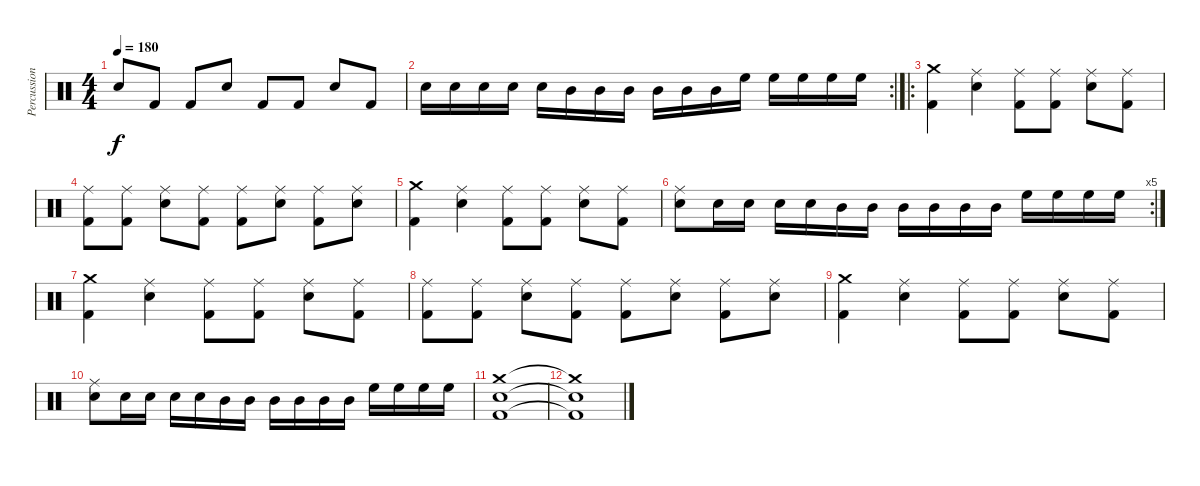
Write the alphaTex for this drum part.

\track ("Percussions" "Percussion") {instrument percussion}
\staff {score}
\articulation defaults
\ts (4 4)
\tempo 180
\clef neutral
\ks c "Electric Snare (hit)".8{dy f} "Kick (hit) 2".8 "Kick (hit) 2".8 "Electric Snare (hit)".8 "Kick (hit) 2".8 "Kick (hit) 2".8 "Electric Snare (hit)".8 "Kick (hit) 2".8
|
\rc 2 "Electric Snare (hit)".16 "Electric Snare (hit)".16 "Electric Snare (hit)".16 "Electric Snare (hit)".16 "Electric Snare (hit)".16 "Mid Tom (hit)".16 "Mid Tom (hit)".16 "Mid Tom (hit)".16 "Mid Tom (hit)".16 "Mid Tom (hit)".16 "Mid Tom (hit)".16 "High Floor Tom (hit)".16 "High Floor Tom (hit)".16 "High Floor Tom (hit)".16 "High Floor Tom (hit)".16 "High Floor Tom (hit)".16
|
\ro
("Crash medium (hit)" "Kick (hit) 2").4 ("Ride (middle)" "Electric Snare (hit)").4 ("Ride (middle)" "Kick (hit) 2").8 ("Ride (middle)" "Kick (hit) 2").8 ("Ride (middle)" "Electric Snare (hit)").8 ("Ride (middle)" "Kick (hit) 2").8 |
("Ride (middle)" "Kick (hit) 2").8 ("Ride (middle)" "Kick (hit) 2").8 ("Ride (middle)" "Electric Snare (hit)").8 ("Ride (middle)" "Kick (hit) 2").8 ("Ride (middle)" "Kick (hit) 2").8 ("Ride (middle)" "Electric Snare (hit)").8 ("Ride (middle)" "Kick (hit) 2").8 ("Ride (middle)" "Electric Snare (hit)").8 |
("Crash medium (hit)" "Kick (hit) 2").4 ("Ride (middle)" "Electric Snare (hit)").4 ("Ride (middle)" "Kick (hit) 2").8 ("Ride (middle)" "Kick (hit) 2").8 ("Ride (middle)" "Electric Snare (hit)").8 ("Ride (middle)" "Kick (hit) 2").8 |
\rc 5
("Ride (middle)" "Electric Snare (hit)").8 "Electric Snare (hit)".16 "Electric Snare (hit)".16 "Electric Snare (hit)".16 "Electric Snare (hit)".16 "Mid Tom (hit)".16 "Mid Tom (hit)".16 "Mid Tom (hit)".16 "Mid Tom (hit)".16 "Mid Tom (hit)".16 "Mid Tom (hit)".16 "High Floor Tom (hit)".16 "High Floor Tom (hit)".16 "High Floor Tom (hit)".16 "High Floor Tom (hit)".16 |
("Crash medium (hit)" "Kick (hit) 2").4 ("Ride (middle)" "Electric Snare (hit)").4 ("Ride (middle)" "Kick (hit) 2").8 ("Ride (middle)" "Kick (hit) 2").8 ("Ride (middle)" "Electric Snare (hit)").8 ("Ride (middle)" "Kick (hit) 2").8 |
("Ride (middle)" "Kick (hit) 2").8 ("Ride (middle)" "Kick (hit) 2").8 ("Ride (middle)" "Electric Snare (hit)").8 ("Ride (middle)" "Kick (hit) 2").8 ("Ride (middle)" "Kick (hit) 2").8 ("Ride (middle)" "Electric Snare (hit)").8 ("Ride (middle)" "Kick (hit) 2").8 ("Ride (middle)" "Electric Snare (hit)").8 |
("Crash medium (hit)" "Kick (hit) 2").4 ("Ride (middle)" "Electric Snare (hit)").4 ("Ride (middle)" "Kick (hit) 2").8 ("Ride (middle)" "Kick (hit) 2").8 ("Ride (middle)" "Electric Snare (hit)").8 ("Ride (middle)" "Kick (hit) 2").8 |
("Ride (middle)" "Electric Snare (hit)").8 "Electric Snare (hit)".16 "Electric Snare (hit)".16 "Electric Snare (hit)".16 "Electric Snare (hit)".16 "Mid Tom (hit)".16 "Mid Tom (hit)".16 "Mid Tom (hit)".16 "Mid Tom (hit)".16 "Mid Tom (hit)".16 "Mid Tom (hit)".16 "High Floor Tom (hit)".16 "High Floor Tom (hit)".16 "High Floor Tom (hit)".16 "High Floor Tom (hit)".16 |
("Crash medium (hit)" "Electric Snare (hit)" "Kick (hit) 2").1 |
("Crash medium (hit)"{t} "Electric Snare (hit)"{t} "Kick (hit) 2"{t}).1
